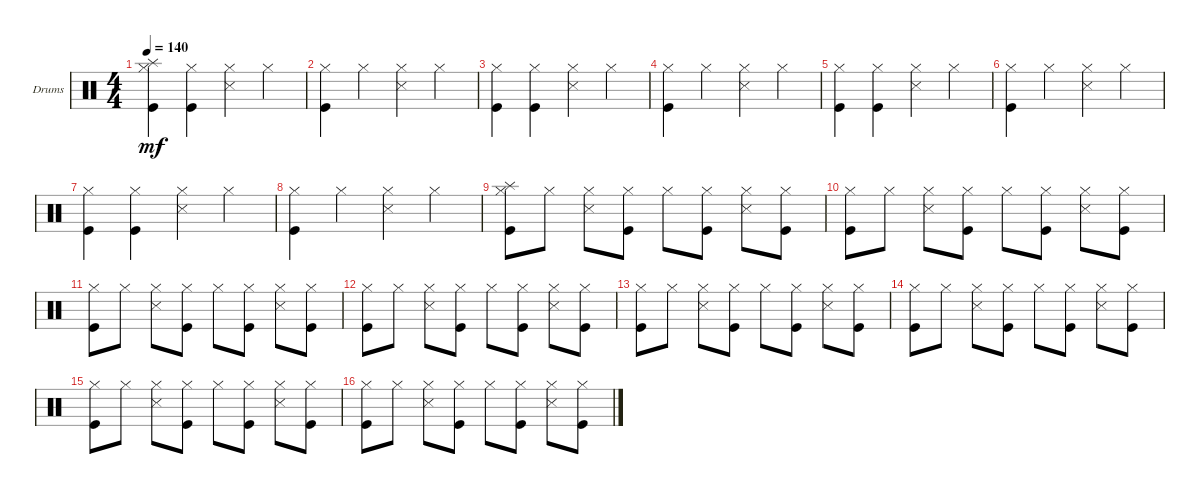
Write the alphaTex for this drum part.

\defaultSystemsLayout 4
\bracketExtendMode groupsimilarinstruments
\firstSystemTrackNameOrientation horizontal
\otherSystemsTrackNameOrientation horizontal
\track ("Drumkit" "Drums") {instrument percussion}
\staff {score}
\articulation defaults
\ts (4 4)
\tempo 140
\clef neutral
\ks c
("Hi-Hat (closed)" "Kick (hit)" "Splash (hit)").4{dy mf} ("Hi-Hat (closed)" "Kick (hit)").4 ("Hi-Hat (closed)" "Snare (side stick) 3").4 "Hi-Hat (closed)".4 |
("Hi-Hat (closed)" "Kick (hit)").4 "Hi-Hat (closed)".4 ("Hi-Hat (closed)" "Snare (side stick) 3").4 "Hi-Hat (closed)".4 |
("Hi-Hat (closed)" "Kick (hit)").4 ("Hi-Hat (closed)" "Kick (hit)").4 ("Hi-Hat (closed)" "Snare (side stick) 3").4 "Hi-Hat (closed)".4 |
("Hi-Hat (closed)" "Kick (hit)").4 "Hi-Hat (closed)".4 ("Hi-Hat (closed)" "Snare (side stick) 3").4 "Hi-Hat (closed)".4 |
("Hi-Hat (closed)" "Kick (hit)").4 ("Hi-Hat (closed)" "Kick (hit)").4 ("Hi-Hat (closed)" "Snare (side stick) 3").4 "Hi-Hat (closed)".4 |
("Hi-Hat (closed)" "Kick (hit)").4 "Hi-Hat (closed)".4 ("Hi-Hat (closed)" "Snare (side stick) 3").4 "Hi-Hat (closed)".4 |
("Hi-Hat (closed)" "Kick (hit)").4 ("Hi-Hat (closed)" "Kick (hit)").4 ("Hi-Hat (closed)" "Snare (side stick) 3").4 "Hi-Hat (closed)".4 |
("Hi-Hat (closed)" "Kick (hit)").4 "Hi-Hat (closed)".4 ("Hi-Hat (closed)" "Snare (side stick) 3").4 "Hi-Hat (closed)".4 |
("Kick (hit)" "Hi-Hat (closed)" "Splash (hit)").8 "Hi-Hat (closed)".8 ("Hi-Hat (closed)" "Snare (side stick) 3").8 ("Hi-Hat (closed)" "Kick (hit)").8 "Hi-Hat (closed)".8 ("Hi-Hat (closed)" "Kick (hit)").8 ("Hi-Hat (closed)" "Snare (side stick) 3").8 ("Hi-Hat (closed)" "Kick (hit)").8 |
("Kick (hit)" "Hi-Hat (closed)").8 "Hi-Hat (closed)".8 ("Hi-Hat (closed)" "Snare (side stick) 3").8 ("Hi-Hat (closed)" "Kick (hit)").8 "Hi-Hat (closed)".8 ("Hi-Hat (closed)" "Kick (hit)").8 ("Hi-Hat (closed)" "Snare (side stick) 3").8 ("Hi-Hat (closed)" "Kick (hit)").8 |
("Kick (hit)" "Hi-Hat (closed)").8 "Hi-Hat (closed)".8 ("Hi-Hat (closed)" "Snare (side stick) 3").8 ("Hi-Hat (closed)" "Kick (hit)").8 "Hi-Hat (closed)".8 ("Hi-Hat (closed)" "Kick (hit)").8 ("Hi-Hat (closed)" "Snare (side stick) 3").8 ("Hi-Hat (closed)" "Kick (hit)").8 |
("Kick (hit)" "Hi-Hat (closed)").8 "Hi-Hat (closed)".8 ("Hi-Hat (closed)" "Snare (side stick) 3").8 ("Hi-Hat (closed)" "Kick (hit)").8 "Hi-Hat (closed)".8 ("Hi-Hat (closed)" "Kick (hit)").8 ("Hi-Hat (closed)" "Snare (side stick) 3").8 ("Hi-Hat (closed)" "Kick (hit)").8 |
("Kick (hit)" "Hi-Hat (closed)").8 "Hi-Hat (closed)".8 ("Hi-Hat (closed)" "Snare (side stick) 3").8 ("Hi-Hat (closed)" "Kick (hit)").8 "Hi-Hat (closed)".8 ("Hi-Hat (closed)" "Kick (hit)").8 ("Hi-Hat (closed)" "Snare (side stick) 3").8 ("Hi-Hat (closed)" "Kick (hit)").8 |
("Kick (hit)" "Hi-Hat (closed)").8 "Hi-Hat (closed)".8 ("Hi-Hat (closed)" "Snare (side stick) 3").8 ("Hi-Hat (closed)" "Kick (hit)").8 "Hi-Hat (closed)".8 ("Hi-Hat (closed)" "Kick (hit)").8 ("Hi-Hat (closed)" "Snare (side stick) 3").8 ("Hi-Hat (closed)" "Kick (hit)").8 |
("Kick (hit)" "Hi-Hat (closed)").8 "Hi-Hat (closed)".8 ("Hi-Hat (closed)" "Snare (side stick) 3").8 ("Hi-Hat (closed)" "Kick (hit)").8 "Hi-Hat (closed)".8 ("Hi-Hat (closed)" "Kick (hit)").8 ("Hi-Hat (closed)" "Snare (side stick) 3").8 ("Hi-Hat (closed)" "Kick (hit)").8 |
("Kick (hit)" "Hi-Hat (closed)").8 "Hi-Hat (closed)".8 ("Hi-Hat (closed)" "Snare (side stick) 3").8 ("Hi-Hat (closed)" "Kick (hit)").8 "Hi-Hat (closed)".8 ("Hi-Hat (closed)" "Kick (hit)").8 ("Hi-Hat (closed)" "Snare (side stick) 3").8 ("Hi-Hat (closed)" "Kick (hit)").8
